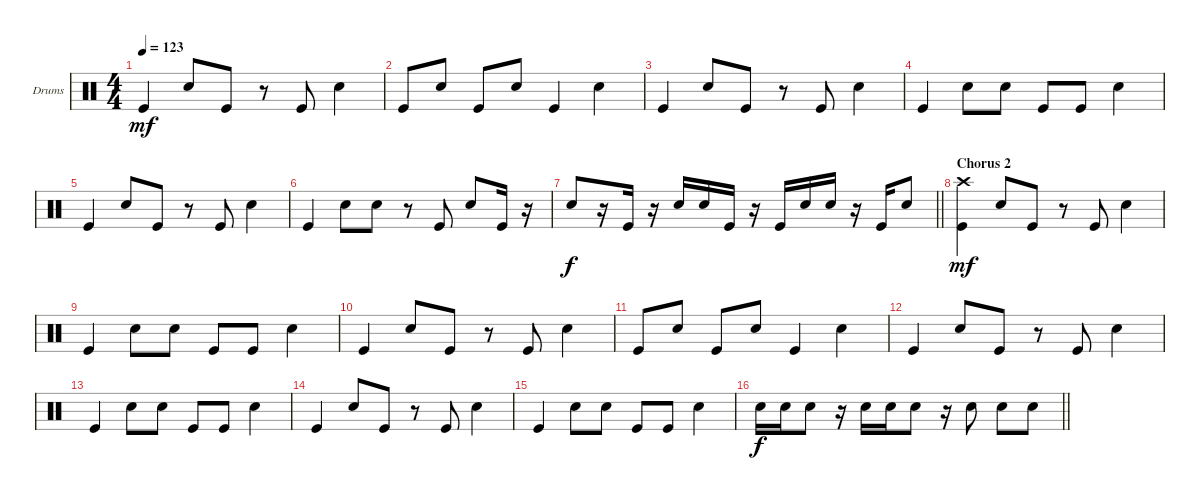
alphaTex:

\defaultSystemsLayout 4
\bracketExtendMode groupsimilarinstruments
\firstSystemTrackNameOrientation horizontal
\otherSystemsTrackNameOrientation horizontal
\track ("Drumkit" "Drums") {instrument percussion}
\staff {score}
\articulation defaults
\ts (4 4)
\tempo 123
\clef neutral
\ks c "Kick (hit)".4{dy mf} "Snare (hit) 2".8 "Kick (hit)".8
r.8 "Kick (hit)".8 "Snare (hit) 2".4 |
"Kick (hit)".8 "Snare (hit) 2".8 "Kick (hit)".8 "Snare (hit) 2".8 "Kick (hit)".4 "Snare (hit) 2".4 |
"Kick (hit)".4 "Snare (hit) 2".8 "Kick (hit)".8 r.8 "Kick (hit)".8 "Snare (hit) 2".4 |
"Kick (hit)".4 "Snare (hit) 2".8 "Snare (hit) 2".8 "Kick (hit)".8 "Kick (hit)".8 "Snare (hit) 2".4 |
"Kick (hit)".4 "Snare (hit) 2".8 "Kick (hit)".8 r.8 "Kick (hit)".8 "Snare (hit) 2".4 |
"Kick (hit)".4 "Snare (hit) 2".8 "Snare (hit) 2".8 r.8 "Kick (hit)".8 "Snare (hit) 2".8 "Kick (hit)".16 r.16 |
\barLineRight lightlight "Snare (hit) 2".8{dy f}
r.16 "Kick (hit)".16 r.16 "Snare (hit) 2".16 "Snare (hit) 2".16 "Kick (hit)".16 r.16 "Kick (hit)".16 "Snare (hit) 2".16 "Snare (hit) 2".16 r.16 "Kick (hit)".16 "Snare (hit) 2".8 |
\section ("" "Chorus 2")
("Kick (hit)" "Crash high (hit)").4{dy mf} "Snare (hit) 2".8 "Kick (hit)".8 r.8 "Kick (hit)".8 "Snare (hit) 2".4 |
"Kick (hit)".4 "Snare (hit) 2".8 "Snare (hit) 2".8 "Kick (hit)".8 "Kick (hit)".8 "Snare (hit) 2".4 |
"Kick (hit)".4 "Snare (hit) 2".8 "Kick (hit)".8 r.8 "Kick (hit)".8 "Snare (hit) 2".4 |
"Kick (hit)".8 "Snare (hit) 2".8 "Kick (hit)".8 "Snare (hit) 2".8 "Kick (hit)".4 "Snare (hit) 2".4 |
"Kick (hit)".4 "Snare (hit) 2".8 "Kick (hit)".8 r.8 "Kick (hit)".8 "Snare (hit) 2".4 |
"Kick (hit)".4 "Snare (hit) 2".8 "Snare (hit) 2".8 "Kick (hit)".8 "Kick (hit)".8 "Snare (hit) 2".4 |
"Kick (hit)".4 "Snare (hit) 2".8 "Kick (hit)".8 r.8 "Kick (hit)".8 "Snare (hit) 2".4 |
"Kick (hit)".4 "Snare (hit) 2".8 "Snare (hit) 2".8 "Kick (hit)".8 "Kick (hit)".8 "Snare (hit) 2".4 |
\barLineRight lightlight "Snare (hit) 2".16{dy f} "Snare (hit) 2".16 "Snare (hit) 2".8
r.16 "Snare (hit) 2".16 "Snare (hit) 2".16 "Snare (hit) 2".8 r.16 "Snare (hit) 2".8 "Snare (hit) 2".8 "Snare (hit) 2".8
